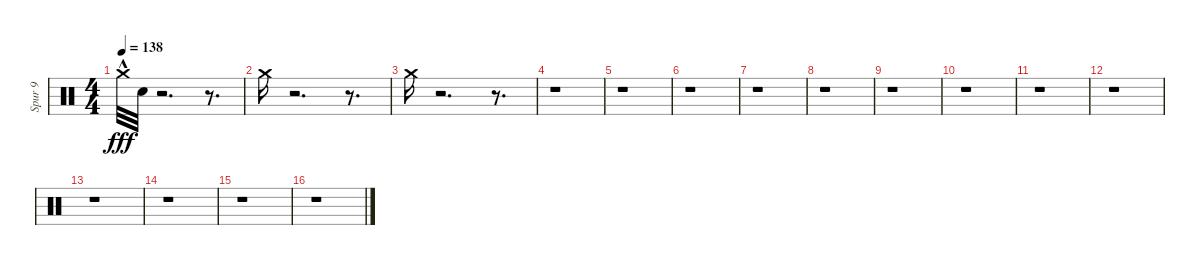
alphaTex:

\track ("Spur 9" "Spur 9") {instrument percussion}
\staff {score}
\articulation defaults
\ts (4 4)
\tempo 138
\clef neutral
\ks c "Crash medium (hit)"{hac}.32{dy fff volume 11} "Electric Snare (hit)".32
r.2{d} r.8{d} |
"Crash medium (hit)".16 r.2{d} r.8{d} |
"Crash medium (hit)".16 r.2{d} r.8{d} |
r.1 |
r.1 |
r.1 |
r.1 |
r.1 |
r.1 |
r.1 |
r.1 |
r.1 |
r.1 |
r.1 |
r.1 |
r.1
